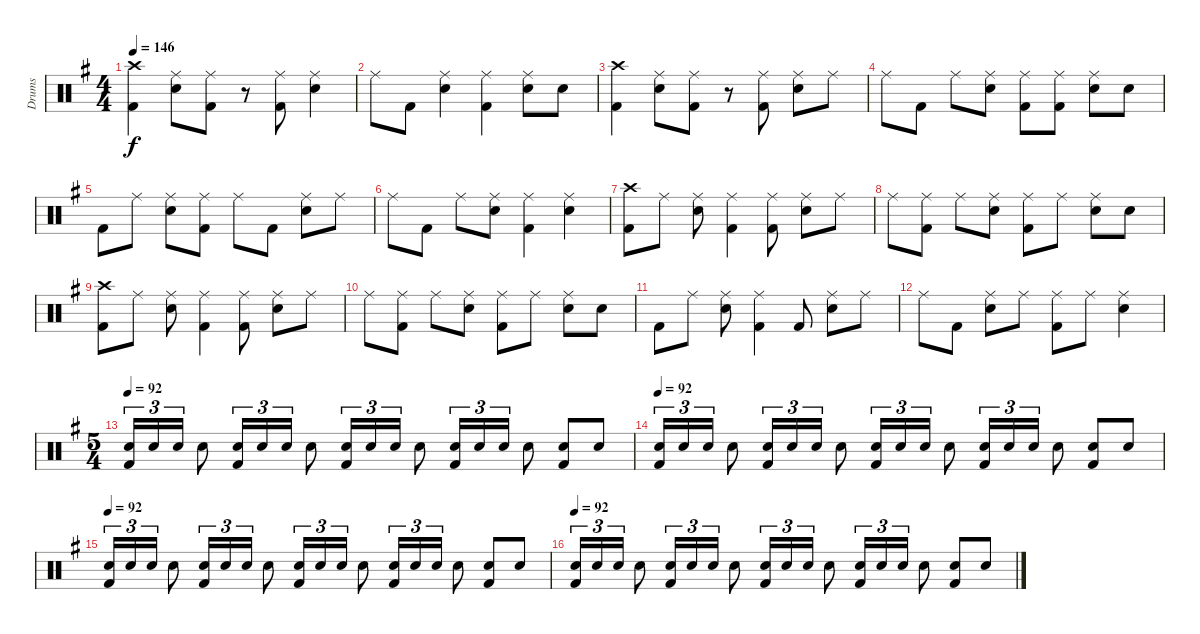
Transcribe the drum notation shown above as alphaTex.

\track ("Drums" "Drums") {instrument percussion}
\staff {score}
\articulation defaults
\ts (4 4)
\tempo 146
\clef neutral
\ks g
("Kick (hit) 2" "Crash high (hit)").4{dy f} ("Snare (hit) 2" "Ride (middle)").8 ("Kick (hit) 2" "Ride (middle)").8 r.8 ("Kick (hit) 2" "Ride (middle)").8 ("Snare (hit) 2" "Ride (middle)").4 |
"Ride (middle)".8 "Kick (hit) 2".8 ("Snare (hit) 2" "Ride (middle)").4 ("Kick (hit) 2" "Ride (middle)").4 ("Snare (hit) 2" "Ride (middle)").8 "Snare (hit) 2".8 |
("Kick (hit) 2" "Crash high (hit)").4 ("Snare (hit) 2" "Ride (middle)").8 ("Kick (hit) 2" "Ride (middle)").8 r.8 ("Kick (hit) 2" "Ride (middle)").8 ("Snare (hit) 2" "Ride (middle)").8 "Ride (middle)".8 |
"Ride (middle)".8 "Kick (hit) 2".8 "Ride (middle)".8 ("Snare (hit) 2" "Ride (middle)").8 ("Kick (hit) 2" "Ride (middle)").8 ("Kick (hit) 2" "Ride (middle)").8 ("Snare (hit) 2" "Ride (middle)").8 "Snare (hit) 2".8 |
"Kick (hit) 2".8 "Ride (middle)".8 ("Snare (hit) 2" "Ride (middle)").8 ("Kick (hit) 2" "Ride (middle)").8 "Ride (middle)".8 "Kick (hit) 2".8 ("Snare (hit) 2" "Ride (middle)").8 "Ride (middle)".8 |
"Ride (middle)".8 "Kick (hit) 2".8 "Ride (middle)".8 ("Snare (hit) 2" "Ride (middle)").8 ("Kick (hit) 2" "Ride (middle)").4 ("Snare (hit) 2" "Ride (middle)").4 |
("Kick (hit) 2" "Crash high (hit)").8 "Ride (middle)".8 ("Snare (hit) 2" "Ride (middle)").8 ("Kick (hit) 2" "Ride (middle)").4 ("Kick (hit) 2" "Ride (middle)").8 ("Snare (hit) 2" "Ride (middle)").8 "Ride (middle)".8 |
"Ride (middle)".8 ("Kick (hit) 2" "Ride (middle)").8 "Ride (middle)".8 ("Snare (hit) 2" "Ride (middle)").8 ("Kick (hit) 2" "Ride (middle)").8 "Ride (middle)".8 ("Snare (hit) 2" "Ride (middle)").8 "Snare (hit) 2".8 |
("Kick (hit) 2" "Crash high (hit)").8 "Ride (middle)".8 ("Snare (hit) 2" "Ride (middle)").8 ("Kick (hit) 2" "Ride (middle)").4 ("Kick (hit) 2" "Ride (middle)").8 ("Snare (hit) 2" "Ride (middle)").8 "Ride (middle)".8 |
"Ride (middle)".8 ("Kick (hit) 2" "Ride (middle)").8 "Ride (middle)".8 ("Snare (hit) 2" "Ride (middle)").8 ("Kick (hit) 2" "Ride (middle)").8 "Ride (middle)".8 ("Snare (hit) 2" "Ride (middle)").8 "Snare (hit) 2".8 |
"Kick (hit) 2".8 "Ride (middle)".8 ("Snare (hit) 2" "Ride (middle)").8 ("Kick (hit) 2" "Ride (middle)").4 "Kick (hit) 2".8 ("Snare (hit) 2" "Ride (middle)").8 "Ride (middle)".8 |
"Ride (middle)".8 "Kick (hit) 2".8 ("Snare (hit) 2" "Ride (middle)").8 "Ride (middle)".8 ("Kick (hit) 2" "Ride (middle)").8 "Ride (middle)".8 ("Snare (hit) 2" "Ride (middle)").4 |
\ts (5 4)
\tempo 92
("Kick (hit) 2" "Snare (hit) 2").16{tu (3 2)} "Snare (hit) 2".16{tu (3 2)} "Snare (hit) 2".16{tu (3 2)} "Snare (hit) 2".8 ("Kick (hit) 2" "Snare (hit) 2").16{tu (3 2)} "Snare (hit) 2".16{tu (3 2)} "Snare (hit) 2".16{tu (3 2)} "Snare (hit) 2".8 ("Kick (hit) 2" "Snare (hit) 2").16{tu (3 2)} "Snare (hit) 2".16{tu (3 2)} "Snare (hit) 2".16{tu (3 2)} "Snare (hit) 2".8 ("Kick (hit) 2" "Snare (hit) 2").16{tu (3 2)} "Snare (hit) 2".16{tu (3 2)} "Snare (hit) 2".16{tu (3 2)} "Snare (hit) 2".8 ("Kick (hit) 2" "Snare (hit) 2").8 "Snare (hit) 2".8 |
\tempo 92
("Kick (hit) 2" "Snare (hit) 2").16{tu (3 2)} "Snare (hit) 2".16{tu (3 2)} "Snare (hit) 2".16{tu (3 2)} "Snare (hit) 2".8 ("Kick (hit) 2" "Snare (hit) 2").16{tu (3 2)} "Snare (hit) 2".16{tu (3 2)} "Snare (hit) 2".16{tu (3 2)} "Snare (hit) 2".8 ("Kick (hit) 2" "Snare (hit) 2").16{tu (3 2)} "Snare (hit) 2".16{tu (3 2)} "Snare (hit) 2".16{tu (3 2)} "Snare (hit) 2".8 ("Kick (hit) 2" "Snare (hit) 2").16{tu (3 2)} "Snare (hit) 2".16{tu (3 2)} "Snare (hit) 2".16{tu (3 2)} "Snare (hit) 2".8 ("Kick (hit) 2" "Snare (hit) 2").8 "Snare (hit) 2".8 |
\tempo 92
("Kick (hit) 2" "Snare (hit) 2").16{tu (3 2)} "Snare (hit) 2".16{tu (3 2)} "Snare (hit) 2".16{tu (3 2)} "Snare (hit) 2".8 ("Kick (hit) 2" "Snare (hit) 2").16{tu (3 2)} "Snare (hit) 2".16{tu (3 2)} "Snare (hit) 2".16{tu (3 2)} "Snare (hit) 2".8 ("Kick (hit) 2" "Snare (hit) 2").16{tu (3 2)} "Snare (hit) 2".16{tu (3 2)} "Snare (hit) 2".16{tu (3 2)} "Snare (hit) 2".8 ("Kick (hit) 2" "Snare (hit) 2").16{tu (3 2)} "Snare (hit) 2".16{tu (3 2)} "Snare (hit) 2".16{tu (3 2)} "Snare (hit) 2".8 ("Kick (hit) 2" "Snare (hit) 2").8 "Snare (hit) 2".8 |
\tempo 92
("Kick (hit) 2" "Snare (hit) 2").16{tu (3 2)} "Snare (hit) 2".16{tu (3 2)} "Snare (hit) 2".16{tu (3 2)} "Snare (hit) 2".8 ("Kick (hit) 2" "Snare (hit) 2").16{tu (3 2)} "Snare (hit) 2".16{tu (3 2)} "Snare (hit) 2".16{tu (3 2)} "Snare (hit) 2".8 ("Kick (hit) 2" "Snare (hit) 2").16{tu (3 2)} "Snare (hit) 2".16{tu (3 2)} "Snare (hit) 2".16{tu (3 2)} "Snare (hit) 2".8 ("Kick (hit) 2" "Snare (hit) 2").16{tu (3 2)} "Snare (hit) 2".16{tu (3 2)} "Snare (hit) 2".16{tu (3 2)} "Snare (hit) 2".8 ("Kick (hit) 2" "Snare (hit) 2").8 "Snare (hit) 2".8
